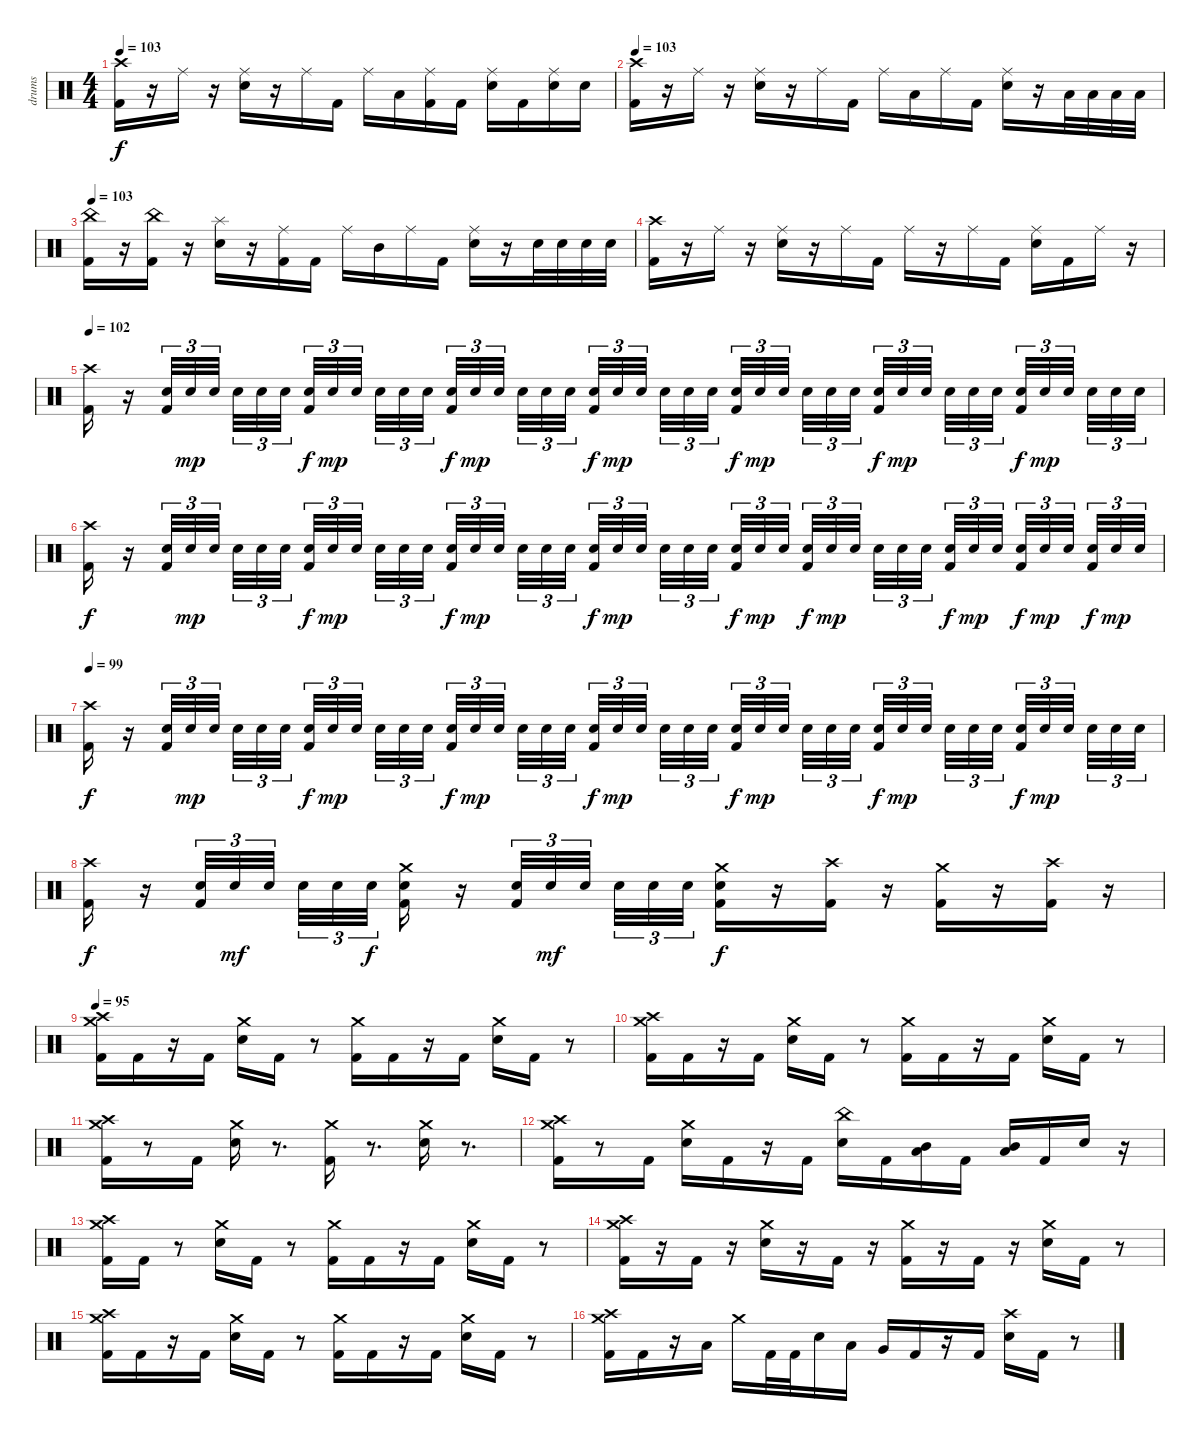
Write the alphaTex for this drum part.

\track ("drums" "drums") {instrument percussion}
\staff {score}
\articulation defaults
\ts (4 4)
\tempo 103
\clef neutral
\ks c
("Kick (hit) 2" "Crash high (hit)").16{dy f} r.16 "Ride (middle)".16 r.16 ("Snare (hit) 2" "Ride (middle)").16 r.16 "Ride (middle)".16 "Kick (hit) 2".16 "Ride (middle)".16 "Low Tom (hit)".16 ("Kick (hit) 2" "Ride (middle)").16 "Kick (hit) 2".16 ("Snare (hit) 2" "Ride (middle)").16 "Kick (hit) 2".16 ("Snare (hit) 2" "Ride (middle)").16 "Snare (hit) 2".16 |
\tempo 103
("Kick (hit) 2" "Crash high (hit)").16 r.16 "Ride (middle)".16 r.16 ("Snare (hit) 2" "Ride (middle)").16 r.16 "Ride (middle)".16 "Kick (hit) 2".16 "Ride (middle)".16 "Low Tom (hit)".16 "Ride (middle)".16 "Kick (hit) 2".16 ("Snare (hit) 2" "Ride (middle)").16 r.16 "Low Floor Tom (hit)".32 "Low Floor Tom (hit)".32 "Low Floor Tom (hit)".32 "Low Floor Tom (hit)".32 |
\tempo 103
("Kick (hit) 2" "China (hit)").16 r.16 ("Kick (hit) 2" "China (hit)").16 r.16 ("Snare (hit) 2" "Splash (hit)").16 r.16 ("Kick (hit) 2" "Ride (middle)").16 "Kick (hit) 2".16 "Ride (middle)".16 "Mid Tom (hit)".16 "Ride (middle)".16 "Kick (hit) 2".16 ("Snare (hit) 2" "Ride (middle)").16 r.16 "Snare (hit) 2".32 "Snare (hit) 2".32 "Snare (hit) 2".32 "Snare (hit) 2".32 |
("Kick (hit) 2" "Crash high (hit)").16 r.16 "Ride (middle)".16 r.16 ("Snare (hit) 2" "Ride (middle)").16 r.16 "Ride (middle)".16 "Kick (hit) 2".16 "Ride (middle)".16 r.16 "Ride (middle)".16 "Kick (hit) 2".16 ("Snare (hit) 2" "Ride (middle)").16 "Kick (hit) 2".16 "Ride (middle)".16 r.16 |
\tempo 102
("Kick (hit) 2" "Crash high (hit)").16 r.16 ("Kick (hit) 2" "Snare (hit) 2").32{tu (3 2)} "Snare (hit) 2".32{tu (3 2) dy mp} "Snare (hit) 2".32{tu (3 2) beam splitsecondary} "Snare (hit) 2".32{tu (3 2)} "Snare (hit) 2".32{tu (3 2)} "Snare (hit) 2".32{tu (3 2)} ("Kick (hit) 2" "Snare (hit) 2").32{tu (3 2) dy f} "Snare (hit) 2".32{tu (3 2) dy mp} "Snare (hit) 2".32{tu (3 2) beam splitsecondary} "Snare (hit) 2".32{tu (3 2)} "Snare (hit) 2".32{tu (3 2)} "Snare (hit) 2".32{tu (3 2) beam splitsecondary} ("Kick (hit) 2" "Snare (hit) 2").32{tu (3 2) dy f} "Snare (hit) 2".32{tu (3 2) dy mp} "Snare (hit) 2".32{tu (3 2) beam splitsecondary} "Snare (hit) 2".32{tu (3 2)} "Snare (hit) 2".32{tu (3 2)} "Snare (hit) 2".32{tu (3 2)} ("Kick (hit) 2" "Snare (hit) 2").32{tu (3 2) dy f} "Snare (hit) 2".32{tu (3 2) dy mp} "Snare (hit) 2".32{tu (3 2) beam splitsecondary} "Snare (hit) 2".32{tu (3 2)} "Snare (hit) 2".32{tu (3 2)} "Snare (hit) 2".32{tu (3 2) beam splitsecondary} ("Kick (hit) 2" "Snare (hit) 2").32{tu (3 2) dy f} "Snare (hit) 2".32{tu (3 2) dy mp} "Snare (hit) 2".32{tu (3 2) beam splitsecondary} "Snare (hit) 2".32{tu (3 2)} "Snare (hit) 2".32{tu (3 2)} "Snare (hit) 2".32{tu (3 2)} ("Kick (hit) 2" "Snare (hit) 2").32{tu (3 2) dy f} "Snare (hit) 2".32{tu (3 2) dy mp} "Snare (hit) 2".32{tu (3 2) beam splitsecondary} "Snare (hit) 2".32{tu (3 2)} "Snare (hit) 2".32{tu (3 2)} "Snare (hit) 2".32{tu (3 2) beam splitsecondary} ("Kick (hit) 2" "Snare (hit) 2").32{tu (3 2) dy f} "Snare (hit) 2".32{tu (3 2) dy mp} "Snare (hit) 2".32{tu (3 2) beam splitsecondary} "Snare (hit) 2".32{tu (3 2)} "Snare (hit) 2".32{tu (3 2)} "Snare (hit) 2".32{tu (3 2)} |
("Kick (hit) 2" "Crash high (hit)").16{dy f} r.16 ("Kick (hit) 2" "Snare (hit) 2").32{tu (3 2)} "Snare (hit) 2".32{tu (3 2) dy mp} "Snare (hit) 2".32{tu (3 2) beam splitsecondary} "Snare (hit) 2".32{tu (3 2)} "Snare (hit) 2".32{tu (3 2)} "Snare (hit) 2".32{tu (3 2)} ("Kick (hit) 2" "Snare (hit) 2").32{tu (3 2) dy f} "Snare (hit) 2".32{tu (3 2) dy mp} "Snare (hit) 2".32{tu (3 2) beam splitsecondary} "Snare (hit) 2".32{tu (3 2)} "Snare (hit) 2".32{tu (3 2)} "Snare (hit) 2".32{tu (3 2) beam splitsecondary} ("Kick (hit) 2" "Snare (hit) 2").32{tu (3 2) dy f} "Snare (hit) 2".32{tu (3 2) dy mp} "Snare (hit) 2".32{tu (3 2) beam splitsecondary} "Snare (hit) 2".32{tu (3 2)} "Snare (hit) 2".32{tu (3 2)} "Snare (hit) 2".32{tu (3 2)} ("Kick (hit) 2" "Snare (hit) 2").32{tu (3 2) dy f} "Snare (hit) 2".32{tu (3 2) dy mp} "Snare (hit) 2".32{tu (3 2) beam splitsecondary} "Snare (hit) 2".32{tu (3 2)} "Snare (hit) 2".32{tu (3 2)} "Snare (hit) 2".32{tu (3 2) beam splitsecondary} ("Kick (hit) 2" "Snare (hit) 2").32{tu (3 2) dy f} "Snare (hit) 2".32{tu (3 2) dy mp} "Snare (hit) 2".32{tu (3 2) beam splitsecondary} ("Kick (hit) 2" "Snare (hit) 2").32{tu (3 2) dy f} "Snare (hit) 2".32{tu (3 2) dy mp} "Snare (hit) 2".32{tu (3 2)} "Snare (hit) 2".32{tu (3 2)} "Snare (hit) 2".32{tu (3 2)} "Snare (hit) 2".32{tu (3 2) beam splitsecondary} ("Kick (hit) 2" "Snare (hit) 2").32{tu (3 2) dy f} "Snare (hit) 2".32{tu (3 2) dy mp} "Snare (hit) 2".32{tu (3 2) beam splitsecondary} ("Kick (hit) 2" "Snare (hit) 2").32{tu (3 2) dy f} "Snare (hit) 2".32{tu (3 2) dy mp} "Snare (hit) 2".32{tu (3 2) beam splitsecondary} ("Kick (hit) 2" "Snare (hit) 2").32{tu (3 2) dy f} "Snare (hit) 2".32{tu (3 2) dy mp} "Snare (hit) 2".32{tu (3 2)} |
\tempo 99
("Kick (hit) 2" "Crash high (hit)").16{dy f} r.16 ("Kick (hit) 2" "Snare (hit) 2").32{tu (3 2)} "Snare (hit) 2".32{tu (3 2) dy mp} "Snare (hit) 2".32{tu (3 2) beam splitsecondary} "Snare (hit) 2".32{tu (3 2)} "Snare (hit) 2".32{tu (3 2)} "Snare (hit) 2".32{tu (3 2)} ("Kick (hit) 2" "Snare (hit) 2").32{tu (3 2) dy f} "Snare (hit) 2".32{tu (3 2) dy mp} "Snare (hit) 2".32{tu (3 2) beam splitsecondary} "Snare (hit) 2".32{tu (3 2)} "Snare (hit) 2".32{tu (3 2)} "Snare (hit) 2".32{tu (3 2) beam splitsecondary} ("Kick (hit) 2" "Snare (hit) 2").32{tu (3 2) dy f} "Snare (hit) 2".32{tu (3 2) dy mp} "Snare (hit) 2".32{tu (3 2) beam splitsecondary} "Snare (hit) 2".32{tu (3 2)} "Snare (hit) 2".32{tu (3 2)} "Snare (hit) 2".32{tu (3 2)} ("Kick (hit) 2" "Snare (hit) 2").32{tu (3 2) dy f} "Snare (hit) 2".32{tu (3 2) dy mp} "Snare (hit) 2".32{tu (3 2) beam splitsecondary} "Snare (hit) 2".32{tu (3 2)} "Snare (hit) 2".32{tu (3 2)} "Snare (hit) 2".32{tu (3 2) beam splitsecondary} ("Kick (hit) 2" "Snare (hit) 2").32{tu (3 2) dy f} "Snare (hit) 2".32{tu (3 2) dy mp} "Snare (hit) 2".32{tu (3 2) beam splitsecondary} "Snare (hit) 2".32{tu (3 2)} "Snare (hit) 2".32{tu (3 2)} "Snare (hit) 2".32{tu (3 2)} ("Kick (hit) 2" "Snare (hit) 2").32{tu (3 2) dy f} "Snare (hit) 2".32{tu (3 2) dy mp} "Snare (hit) 2".32{tu (3 2) beam splitsecondary} "Snare (hit) 2".32{tu (3 2)} "Snare (hit) 2".32{tu (3 2)} "Snare (hit) 2".32{tu (3 2) beam splitsecondary} ("Kick (hit) 2" "Snare (hit) 2").32{tu (3 2) dy f} "Snare (hit) 2".32{tu (3 2) dy mp} "Snare (hit) 2".32{tu (3 2) beam splitsecondary} "Snare (hit) 2".32{tu (3 2)} "Snare (hit) 2".32{tu (3 2)} "Snare (hit) 2".32{tu (3 2)} |
("Kick (hit) 2" "Crash high (hit)").16{dy f} r.16 ("Kick (hit) 2" "Snare (hit) 2").32{tu (3 2)} "Snare (hit) 2".32{tu (3 2) dy mf} "Snare (hit) 2".32{tu (3 2) beam splitsecondary} "Snare (hit) 2".32{tu (3 2)} "Snare (hit) 2".32{tu (3 2)} "Snare (hit) 2".32{tu (3 2) dy f} ("Kick (hit) 2" "Snare (hit) 2" "Crash medium (hit)").16 r.16 ("Kick (hit) 2" "Snare (hit) 2").32{tu (3 2)} "Snare (hit) 2".32{tu (3 2) dy mf} "Snare (hit) 2".32{tu (3 2) beam splitsecondary} "Snare (hit) 2".32{tu (3 2)} "Snare (hit) 2".32{tu (3 2)} "Snare (hit) 2".32{tu (3 2)} ("Kick (hit) 2" "Snare (hit) 2" "Crash medium (hit)").16{dy f} r.16 ("Kick (hit) 2" "Crash high (hit)").16 r.16 ("Kick (hit) 2" "Crash medium (hit)").16 r.16 ("Kick (hit) 2" "Crash high (hit)").16 r.16 |
\tempo 95
("Kick (hit) 2" "Crash high (hit)" "Crash medium (hit)").16 "Kick (hit) 2".16 r.16 "Kick (hit) 2".16 ("Snare (hit) 2" "Crash medium (hit)").16 "Kick (hit) 2".16 r.8 ("Kick (hit) 2" "Crash medium (hit)").16 "Kick (hit) 2".16 r.16 "Kick (hit) 2".16 ("Snare (hit) 2" "Crash medium (hit)").16 "Kick (hit) 2".16 r.8 |
("Kick (hit) 2" "Crash high (hit)" "Crash medium (hit)").16 "Kick (hit) 2".16 r.16 "Kick (hit) 2".16 ("Snare (hit) 2" "Crash medium (hit)").16 "Kick (hit) 2".16 r.8 ("Kick (hit) 2" "Crash medium (hit)").16 "Kick (hit) 2".16 r.16 "Kick (hit) 2".16 ("Snare (hit) 2" "Crash medium (hit)").16 "Kick (hit) 2".16 r.8 |
("Kick (hit) 2" "Crash high (hit)" "Crash medium (hit)").16 r.8 "Kick (hit) 2".16 ("Snare (hit) 2" "Crash medium (hit)").16 r.8{d} ("Kick (hit) 2" "Crash medium (hit)").16 r.8{d} ("Snare (hit) 2" "Crash medium (hit)").16 r.8{d} |
("Kick (hit) 2" "Crash high (hit)" "Crash medium (hit)").16 r.8 "Kick (hit) 2".16 ("Snare (hit) 2" "Crash medium (hit)").16 "Kick (hit) 2".16 r.16 "Kick (hit) 2".16 ("Snare (hit) 2" "China (hit)").16 "Kick (hit) 2".16 ("Low Floor Tom (hit)" "Mid Tom (hit)").16 "Kick (hit) 2".16 ("Low Floor Tom (hit)" "Mid Tom (hit)").16 "Kick (hit) 2".16 "Snare (hit) 2".16 r.16 |
("Kick (hit) 2" "Crash high (hit)" "Crash medium (hit)").16 "Kick (hit) 2".16 r.8 ("Snare (hit) 2" "Crash medium (hit)").16 "Kick (hit) 2".16 r.8 ("Kick (hit) 2" "Crash medium (hit)").16 "Kick (hit) 2".16 r.16 "Kick (hit) 2".16 ("Snare (hit) 2" "Crash medium (hit)").16 "Kick (hit) 2".16 r.8 |
("Kick (hit) 2" "Crash high (hit)" "Crash medium (hit)").16 r.16 "Kick (hit) 2".16 r.16 ("Snare (hit) 2" "Crash medium (hit)").16 r.16 "Kick (hit) 2".16 r.16 ("Kick (hit) 2" "Crash medium (hit)").16 r.16 "Kick (hit) 2".16 r.16 ("Snare (hit) 2" "Crash medium (hit)").16 "Kick (hit) 2".16 r.8 |
("Kick (hit) 2" "Crash high (hit)" "Crash medium (hit)").16 "Kick (hit) 2".16 r.16 "Kick (hit) 2".16 ("Snare (hit) 2" "Crash medium (hit)").16 "Kick (hit) 2".16 r.8 ("Kick (hit) 2" "Crash medium (hit)").16 "Kick (hit) 2".16 r.16 "Kick (hit) 2".16 ("Snare (hit) 2" "Crash medium (hit)").16 "Kick (hit) 2".16 r.8 |
("Kick (hit) 2" "Crash high (hit)" "Crash medium (hit)").16 "Kick (hit) 2".16 r.16 "Low Tom (hit)".16 "Crash medium (hit)".16 "Kick (hit) 2".32 "Kick (hit) 2".32 "Snare (hit) 2".16 "Low Tom (hit)".16 "Very Low Tom (hit)".16 "Kick (hit) 2".16 r.16 "Kick (hit) 2".16 ("Snare (hit) 2" "Crash high (hit)").16 "Kick (hit) 2".16 r.8
